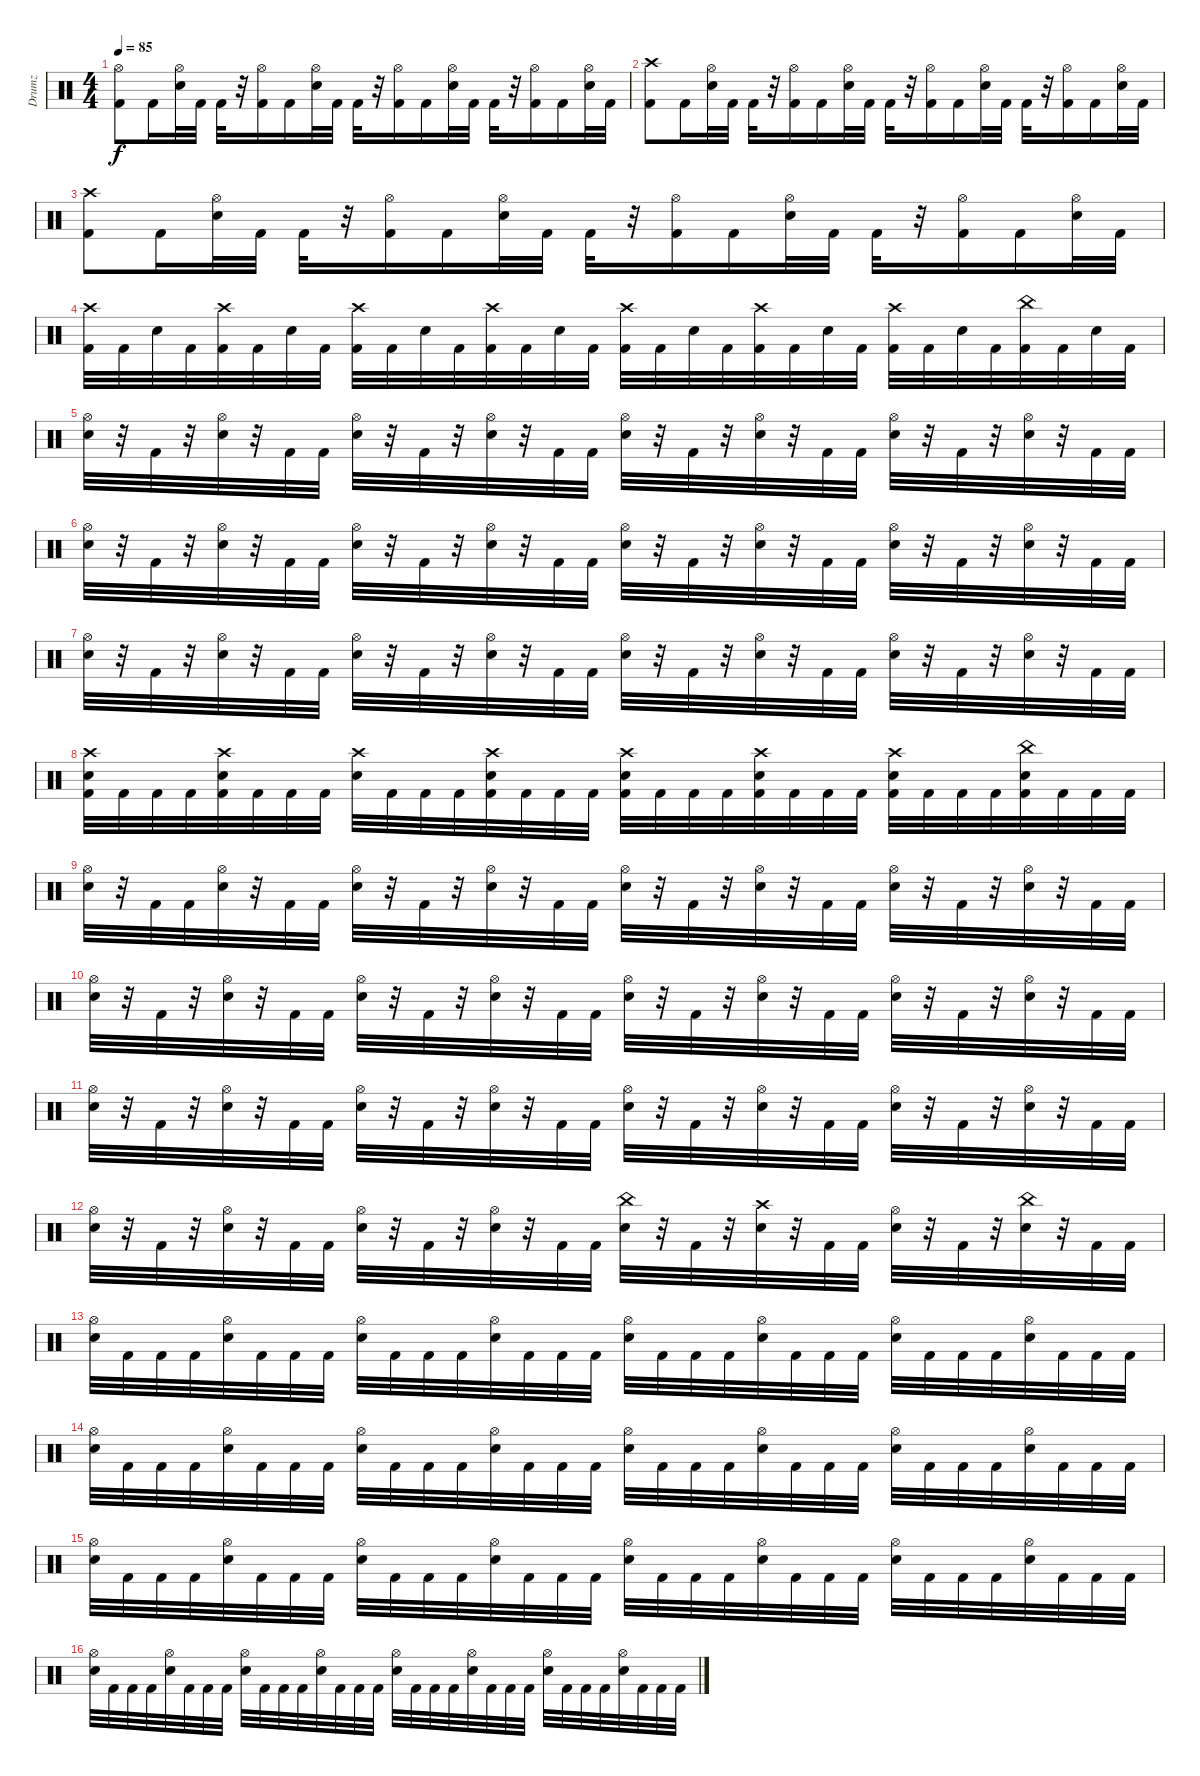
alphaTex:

\track ("Drumz" "Drumz") {instrument percussion}
\staff {score}
\articulation defaults
\ts (4 4)
\tempo 85
\clef neutral
\ks c
("Hi-Hat (open)" "Kick (hit) 2").8{dy f} "Kick (hit) 2".16 ("Hi-Hat (open)" "Snare (hit) 2").32 "Kick (hit) 2".32 "Kick (hit) 2".32 r.32 ("Hi-Hat (open)" "Kick (hit) 2").16 "Kick (hit) 2".16 ("Hi-Hat (open)" "Snare (hit) 2").32 "Kick (hit) 2".32 "Kick (hit) 2".32 r.32 ("Hi-Hat (open)" "Kick (hit) 2").16 "Kick (hit) 2".16 ("Hi-Hat (open)" "Snare (hit) 2").32 "Kick (hit) 2".32 "Kick (hit) 2".32 r.32 ("Hi-Hat (open)" "Kick (hit) 2").16 "Kick (hit) 2".16 ("Hi-Hat (open)" "Snare (hit) 2").32 "Kick (hit) 2".32 |
("Crash high (hit)" "Kick (hit) 2").8 "Kick (hit) 2".16 ("Hi-Hat (open)" "Snare (hit) 2").32 "Kick (hit) 2".32 "Kick (hit) 2".32 r.32 ("Hi-Hat (open)" "Kick (hit) 2").16 "Kick (hit) 2".16 ("Hi-Hat (open)" "Snare (hit) 2").32 "Kick (hit) 2".32 "Kick (hit) 2".32 r.32 ("Hi-Hat (open)" "Kick (hit) 2").16 "Kick (hit) 2".16 ("Hi-Hat (open)" "Snare (hit) 2").32 "Kick (hit) 2".32 "Kick (hit) 2".32 r.32 ("Hi-Hat (open)" "Kick (hit) 2").16 "Kick (hit) 2".16 ("Hi-Hat (open)" "Snare (hit) 2").32 "Kick (hit) 2".32 |
("Crash high (hit)" "Kick (hit) 2").8 "Kick (hit) 2".16 ("Hi-Hat (open)" "Snare (hit) 2").32 "Kick (hit) 2".32 "Kick (hit) 2".32 r.32 ("Hi-Hat (open)" "Kick (hit) 2").16 "Kick (hit) 2".16 ("Hi-Hat (open)" "Snare (hit) 2").32 "Kick (hit) 2".32 "Kick (hit) 2".32 r.32 ("Hi-Hat (open)" "Kick (hit) 2").16 "Kick (hit) 2".16 ("Hi-Hat (open)" "Snare (hit) 2").32 "Kick (hit) 2".32 "Kick (hit) 2".32 r.32 ("Hi-Hat (open)" "Kick (hit) 2").16 "Kick (hit) 2".16 ("Hi-Hat (open)" "Snare (hit) 2").32 "Kick (hit) 2".32 |
("Crash high (hit)" "Kick (hit) 2").32 "Kick (hit) 2".32 "Snare (hit) 2".32 "Kick (hit) 2".32 ("Crash high (hit)" "Kick (hit) 2").32 "Kick (hit) 2".32 "Snare (hit) 2".32 "Kick (hit) 2".32 ("Crash high (hit)" "Kick (hit) 2").32 "Kick (hit) 2".32 "Snare (hit) 2".32 "Kick (hit) 2".32 ("Crash high (hit)" "Kick (hit) 2").32 "Kick (hit) 2".32 "Snare (hit) 2".32 "Kick (hit) 2".32 ("Crash high (hit)" "Kick (hit) 2").32 "Kick (hit) 2".32 "Snare (hit) 2".32 "Kick (hit) 2".32 ("Crash high (hit)" "Kick (hit) 2").32 "Kick (hit) 2".32 "Snare (hit) 2".32 "Kick (hit) 2".32 ("Crash high (hit)" "Kick (hit) 2").32 "Kick (hit) 2".32 "Snare (hit) 2".32 "Kick (hit) 2".32 ("China (hit)" "Kick (hit) 2").32 "Kick (hit) 2".32 "Snare (hit) 2".32 "Kick (hit) 2".32 |
("Hi-Hat (open)" "Snare (hit) 2").32 r.32 "Kick (hit) 2".32 r.32 ("Hi-Hat (open)" "Snare (hit) 2").32 r.32 "Kick (hit) 2".32 "Kick (hit) 2".32 ("Hi-Hat (open)" "Snare (hit) 2").32 r.32 "Kick (hit) 2".32 r.32 ("Hi-Hat (open)" "Snare (hit) 2").32 r.32 "Kick (hit) 2".32 "Kick (hit) 2".32 ("Hi-Hat (open)" "Snare (hit) 2").32 r.32 "Kick (hit) 2".32 r.32 ("Hi-Hat (open)" "Snare (hit) 2").32 r.32 "Kick (hit) 2".32 "Kick (hit) 2".32 ("Hi-Hat (open)" "Snare (hit) 2").32 r.32 "Kick (hit) 2".32 r.32 ("Hi-Hat (open)" "Snare (hit) 2").32 r.32 "Kick (hit) 2".32 "Kick (hit) 2".32 |
("Hi-Hat (open)" "Snare (hit) 2").32 r.32 "Kick (hit) 2".32 r.32 ("Hi-Hat (open)" "Snare (hit) 2").32 r.32 "Kick (hit) 2".32 "Kick (hit) 2".32 ("Hi-Hat (open)" "Snare (hit) 2").32 r.32 "Kick (hit) 2".32 r.32 ("Hi-Hat (open)" "Snare (hit) 2").32 r.32 "Kick (hit) 2".32 "Kick (hit) 2".32 ("Hi-Hat (open)" "Snare (hit) 2").32 r.32 "Kick (hit) 2".32 r.32 ("Hi-Hat (open)" "Snare (hit) 2").32 r.32 "Kick (hit) 2".32 "Kick (hit) 2".32 ("Hi-Hat (open)" "Snare (hit) 2").32 r.32 "Kick (hit) 2".32 r.32 ("Hi-Hat (open)" "Snare (hit) 2").32 r.32 "Kick (hit) 2".32 "Kick (hit) 2".32 |
("Hi-Hat (open)" "Snare (hit) 2").32 r.32 "Kick (hit) 2".32 r.32 ("Hi-Hat (open)" "Snare (hit) 2").32 r.32 "Kick (hit) 2".32 "Kick (hit) 2".32 ("Hi-Hat (open)" "Snare (hit) 2").32 r.32 "Kick (hit) 2".32 r.32 ("Hi-Hat (open)" "Snare (hit) 2").32 r.32 "Kick (hit) 2".32 "Kick (hit) 2".32 ("Hi-Hat (open)" "Snare (hit) 2").32 r.32 "Kick (hit) 2".32 r.32 ("Hi-Hat (open)" "Snare (hit) 2").32 r.32 "Kick (hit) 2".32 "Kick (hit) 2".32 ("Hi-Hat (open)" "Snare (hit) 2").32 r.32 "Kick (hit) 2".32 r.32 ("Hi-Hat (open)" "Snare (hit) 2").32 r.32 "Kick (hit) 2".32 "Kick (hit) 2".32 |
("Crash high (hit)" "Snare (hit) 2" "Kick (hit) 2").32 "Kick (hit) 2".32 "Kick (hit) 2".32 "Kick (hit) 2".32 ("Crash high (hit)" "Snare (hit) 2" "Kick (hit) 2").32 "Kick (hit) 2".32 "Kick (hit) 2".32 "Kick (hit) 2".32 ("Crash high (hit)" "Snare (hit) 2").32 "Kick (hit) 2".32 "Kick (hit) 2".32 "Kick (hit) 2".32 ("Crash high (hit)" "Snare (hit) 2" "Kick (hit) 2").32 "Kick (hit) 2".32 "Kick (hit) 2".32 "Kick (hit) 2".32 ("Crash high (hit)" "Snare (hit) 2" "Kick (hit) 2").32 "Kick (hit) 2".32 "Kick (hit) 2".32 "Kick (hit) 2".32 ("Crash high (hit)" "Snare (hit) 2" "Kick (hit) 2").32 "Kick (hit) 2".32 "Kick (hit) 2".32 "Kick (hit) 2".32 ("Crash high (hit)" "Snare (hit) 2" "Kick (hit) 2").32 "Kick (hit) 2".32 "Kick (hit) 2".32 "Kick (hit) 2".32 ("China (hit)" "Snare (hit) 2" "Kick (hit) 2").32 "Kick (hit) 2".32 "Kick (hit) 2".32 "Kick (hit) 2".32 |
("Hi-Hat (open)" "Snare (hit) 2").32 r.32 "Kick (hit) 2".32 "Kick (hit) 2".32 ("Hi-Hat (open)" "Snare (hit) 2").32 r.32 "Kick (hit) 2".32 "Kick (hit) 2".32 ("Hi-Hat (open)" "Snare (hit) 2").32 r.32 "Kick (hit) 2".32 r.32 ("Hi-Hat (open)" "Snare (hit) 2").32 r.32 "Kick (hit) 2".32 "Kick (hit) 2".32 ("Hi-Hat (open)" "Snare (hit) 2").32 r.32 "Kick (hit) 2".32 r.32 ("Hi-Hat (open)" "Snare (hit) 2").32 r.32 "Kick (hit) 2".32 "Kick (hit) 2".32 ("Hi-Hat (open)" "Snare (hit) 2").32 r.32 "Kick (hit) 2".32 r.32 ("Hi-Hat (open)" "Snare (hit) 2").32 r.32 "Kick (hit) 2".32 "Kick (hit) 2".32 |
("Hi-Hat (open)" "Snare (hit) 2").32 r.32 "Kick (hit) 2".32 r.32 ("Hi-Hat (open)" "Snare (hit) 2").32 r.32 "Kick (hit) 2".32 "Kick (hit) 2".32 ("Hi-Hat (open)" "Snare (hit) 2").32 r.32 "Kick (hit) 2".32 r.32 ("Hi-Hat (open)" "Snare (hit) 2").32 r.32 "Kick (hit) 2".32 "Kick (hit) 2".32 ("Hi-Hat (open)" "Snare (hit) 2").32 r.32 "Kick (hit) 2".32 r.32 ("Hi-Hat (open)" "Snare (hit) 2").32 r.32 "Kick (hit) 2".32 "Kick (hit) 2".32 ("Hi-Hat (open)" "Snare (hit) 2").32 r.32 "Kick (hit) 2".32 r.32 ("Hi-Hat (open)" "Snare (hit) 2").32 r.32 "Kick (hit) 2".32 "Kick (hit) 2".32 |
("Hi-Hat (open)" "Snare (hit) 2").32 r.32 "Kick (hit) 2".32 r.32 ("Hi-Hat (open)" "Snare (hit) 2").32 r.32 "Kick (hit) 2".32 "Kick (hit) 2".32 ("Hi-Hat (open)" "Snare (hit) 2").32 r.32 "Kick (hit) 2".32 r.32 ("Hi-Hat (open)" "Snare (hit) 2").32 r.32 "Kick (hit) 2".32 "Kick (hit) 2".32 ("Hi-Hat (open)" "Snare (hit) 2").32 r.32 "Kick (hit) 2".32 r.32 ("Hi-Hat (open)" "Snare (hit) 2").32 r.32 "Kick (hit) 2".32 "Kick (hit) 2".32 ("Hi-Hat (open)" "Snare (hit) 2").32 r.32 "Kick (hit) 2".32 r.32 ("Hi-Hat (open)" "Snare (hit) 2").32 r.32 "Kick (hit) 2".32 "Kick (hit) 2".32 |
("Hi-Hat (open)" "Snare (hit) 2").32 r.32 "Kick (hit) 2".32 r.32 ("Hi-Hat (open)" "Snare (hit) 2").32 r.32 "Kick (hit) 2".32 "Kick (hit) 2".32 ("Hi-Hat (open)" "Snare (hit) 2").32 r.32 "Kick (hit) 2".32 r.32 ("Hi-Hat (open)" "Snare (hit) 2").32 r.32 "Kick (hit) 2".32 "Kick (hit) 2".32 ("China (hit)" "Snare (hit) 2").32 r.32 "Kick (hit) 2".32 r.32 ("Crash high (hit)" "Snare (hit) 2").32 r.32 "Kick (hit) 2".32 "Kick (hit) 2".32 ("Hi-Hat (open)" "Snare (hit) 2").32 r.32 "Kick (hit) 2".32 r.32 ("China (hit)" "Snare (hit) 2").32 r.32 "Kick (hit) 2".32 "Kick (hit) 2".32 |
("Hi-Hat (open)" "Snare (hit) 2").32 "Kick (hit) 2".32 "Kick (hit) 2".32 "Kick (hit) 2".32 ("Hi-Hat (open)" "Snare (hit) 2").32 "Kick (hit) 2".32 "Kick (hit) 2".32 "Kick (hit) 2".32 ("Hi-Hat (open)" "Snare (hit) 2").32 "Kick (hit) 2".32 "Kick (hit) 2".32 "Kick (hit) 2".32 ("Hi-Hat (open)" "Snare (hit) 2").32 "Kick (hit) 2".32 "Kick (hit) 2".32 "Kick (hit) 2".32 ("Hi-Hat (open)" "Snare (hit) 2").32 "Kick (hit) 2".32 "Kick (hit) 2".32 "Kick (hit) 2".32 ("Hi-Hat (open)" "Snare (hit) 2").32 "Kick (hit) 2".32 "Kick (hit) 2".32 "Kick (hit) 2".32 ("Hi-Hat (open)" "Snare (hit) 2").32 "Kick (hit) 2".32 "Kick (hit) 2".32 "Kick (hit) 2".32 ("Hi-Hat (open)" "Snare (hit) 2").32 "Kick (hit) 2".32 "Kick (hit) 2".32 "Kick (hit) 2".32 |
("Hi-Hat (open)" "Snare (hit) 2").32 "Kick (hit) 2".32 "Kick (hit) 2".32 "Kick (hit) 2".32 ("Hi-Hat (open)" "Snare (hit) 2").32 "Kick (hit) 2".32 "Kick (hit) 2".32 "Kick (hit) 2".32 ("Hi-Hat (open)" "Snare (hit) 2").32 "Kick (hit) 2".32 "Kick (hit) 2".32 "Kick (hit) 2".32 ("Hi-Hat (open)" "Snare (hit) 2").32 "Kick (hit) 2".32 "Kick (hit) 2".32 "Kick (hit) 2".32 ("Hi-Hat (open)" "Snare (hit) 2").32 "Kick (hit) 2".32 "Kick (hit) 2".32 "Kick (hit) 2".32 ("Hi-Hat (open)" "Snare (hit) 2").32 "Kick (hit) 2".32 "Kick (hit) 2".32 "Kick (hit) 2".32 ("Hi-Hat (open)" "Snare (hit) 2").32 "Kick (hit) 2".32 "Kick (hit) 2".32 "Kick (hit) 2".32 ("Hi-Hat (open)" "Snare (hit) 2").32 "Kick (hit) 2".32 "Kick (hit) 2".32 "Kick (hit) 2".32 |
("Hi-Hat (open)" "Snare (hit) 2").32 "Kick (hit) 2".32 "Kick (hit) 2".32 "Kick (hit) 2".32 ("Hi-Hat (open)" "Snare (hit) 2").32 "Kick (hit) 2".32 "Kick (hit) 2".32 "Kick (hit) 2".32 ("Hi-Hat (open)" "Snare (hit) 2").32 "Kick (hit) 2".32 "Kick (hit) 2".32 "Kick (hit) 2".32 ("Hi-Hat (open)" "Snare (hit) 2").32 "Kick (hit) 2".32 "Kick (hit) 2".32 "Kick (hit) 2".32 ("Hi-Hat (open)" "Snare (hit) 2").32 "Kick (hit) 2".32 "Kick (hit) 2".32 "Kick (hit) 2".32 ("Hi-Hat (open)" "Snare (hit) 2").32 "Kick (hit) 2".32 "Kick (hit) 2".32 "Kick (hit) 2".32 ("Hi-Hat (open)" "Snare (hit) 2").32 "Kick (hit) 2".32 "Kick (hit) 2".32 "Kick (hit) 2".32 ("Hi-Hat (open)" "Snare (hit) 2").32 "Kick (hit) 2".32 "Kick (hit) 2".32 "Kick (hit) 2".32 |
("Hi-Hat (open)" "Snare (hit) 2").32 "Kick (hit) 2".32 "Kick (hit) 2".32 "Kick (hit) 2".32 ("Hi-Hat (open)" "Snare (hit) 2").32 "Kick (hit) 2".32 "Kick (hit) 2".32 "Kick (hit) 2".32 ("Hi-Hat (open)" "Snare (hit) 2").32 "Kick (hit) 2".32 "Kick (hit) 2".32 "Kick (hit) 2".32 ("Hi-Hat (open)" "Snare (hit) 2").32 "Kick (hit) 2".32 "Kick (hit) 2".32 "Kick (hit) 2".32 ("Hi-Hat (open)" "Snare (hit) 2").32 "Kick (hit) 2".32 "Kick (hit) 2".32 "Kick (hit) 2".32 ("Hi-Hat (open)" "Snare (hit) 2").32 "Kick (hit) 2".32 "Kick (hit) 2".32 "Kick (hit) 2".32 ("Hi-Hat (open)" "Snare (hit) 2").32 "Kick (hit) 2".32 "Kick (hit) 2".32 "Kick (hit) 2".32 ("Hi-Hat (open)" "Snare (hit) 2").32 "Kick (hit) 2".32 "Kick (hit) 2".32 "Kick (hit) 2".32
